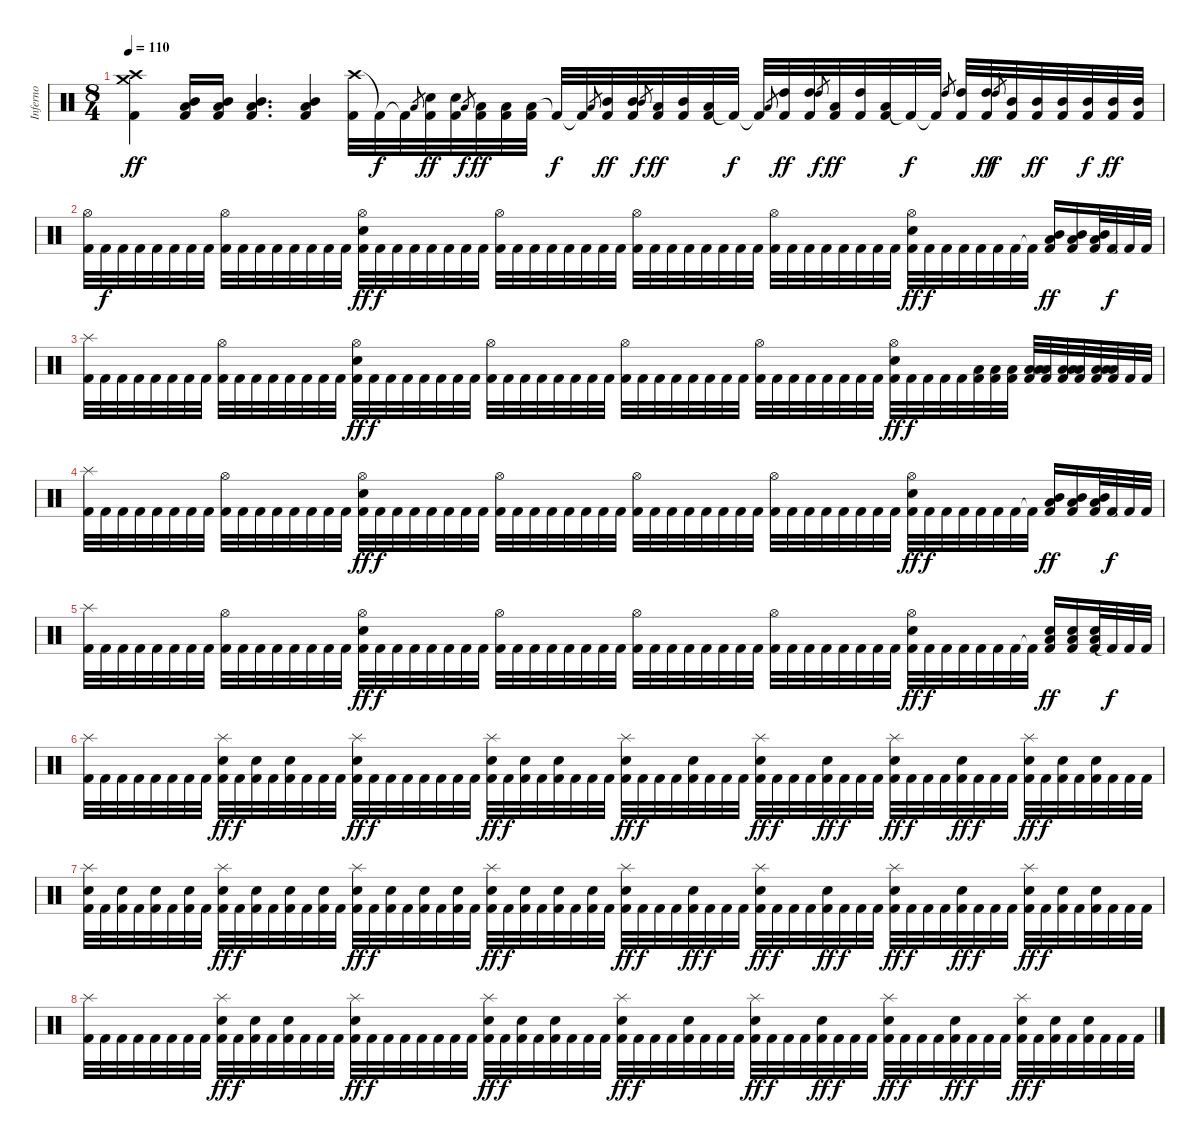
\track ("Inferno" "Inferno") {instrument percussion}
\staff {score}
\articulation defaults
\ts (8 4)
\tempo 110
\clef neutral
\ks c
("Crash high (hit)" "Crash medium (hit)" "Kick (hit) 2").4{dy ff} ("Low Floor Tom (hit)" "Mid Tom (hit)" "Kick (hit) 2").16 ("Low Floor Tom (hit)" "Mid Tom (hit)" "Kick (hit) 2").16 ("Low Floor Tom (hit)" "Mid Tom (hit)" "Kick (hit) 2").4{d} ("Low Floor Tom (hit)" "Mid Tom (hit)" "Kick (hit) 2").4 ("Crash high (hit)" "Kick (hit) 2").32 "Kick (hit) 2"{t}.32{dy f} "Kick (hit) 2"{t}.32 "Low Floor Tom (hit)".8{gr} ("Snare (hit) 2" "Kick (hit) 2").32{dy ff} ("Snare (hit) 2" "Kick (hit) 2").32 "Low Tom (hit)".8{gr dy f} ("Low Floor Tom (hit)" "Kick (hit) 2").32{dy ff} ("Low Tom (hit)" "Kick (hit) 2").32 ("Low Floor Tom (hit)" "Kick (hit) 2").32 "Kick (hit) 2"{t}.32{dy f} "Kick (hit) 2"{t}.32 "Low Floor Tom (hit)".8{gr} ("Mid Tom (hit)" "Kick (hit) 2").32{dy ff} ("Mid Tom (hit)" "Kick (hit) 2").32 "Mid Tom (hit)".8{gr dy f} ("Low Floor Tom (hit)" "Kick (hit) 2").32{dy ff} ("Mid Tom (hit)" "Kick (hit) 2").32 ("Low Floor Tom (hit)" "Kick (hit) 2").32 "Kick (hit) 2"{t}.32{dy f} "Kick (hit) 2"{t}.32 "Low Floor Tom (hit)".8{gr} ("High Tom (hit)" "Kick (hit) 2").32{dy ff} ("High Tom (hit)" "Kick (hit) 2").32 "High Tom (hit)".8{gr dy f} ("Low Floor Tom (hit)" "Kick (hit) 2").32{dy ff} ("High Tom (hit)" "Kick (hit) 2").32 ("Low Floor Tom (hit)" "Kick (hit) 2").32 "Kick (hit) 2"{t}.32{dy f} "Kick (hit) 2"{t}.32 "High Tom (hit)".8{gr} ("High Tom (hit)" "Kick (hit) 2").32 ("High Tom (hit)" "Kick (hit) 2").32{dy ff} "High Tom (hit)".8{gr dy f} ("Mid Tom (hit)" "Kick (hit) 2").32 ("Mid Tom (hit)" "Kick (hit) 2").32{dy ff} ("Mid Tom (hit)" "Kick (hit) 2").32 ("Mid Tom (hit)" "Kick (hit) 2").32{dy f} ("Mid Tom (hit)" "Kick (hit) 2").32{dy ff} ("Mid Tom (hit)" "Kick (hit) 2").32 |
("Hi-Hat (open)" "Kick (hit) 2").32 "Kick (hit) 2".32{dy f} "Kick (hit) 2".32 "Kick (hit) 2".32 "Kick (hit) 2".32 "Kick (hit) 2".32 "Kick (hit) 2".32 "Kick (hit) 2".32 ("Hi-Hat (open)" "Kick (hit) 2").32 "Kick (hit) 2".32 "Kick (hit) 2".32 "Kick (hit) 2".32 "Kick (hit) 2".32 "Kick (hit) 2".32 "Kick (hit) 2".32 "Kick (hit) 2".32 ("Snare (hit) 2" "Hi-Hat (open)" "Kick (hit) 2").32{dy ff} "Kick (hit) 2".32{dy f} "Kick (hit) 2".32 "Kick (hit) 2".32 "Kick (hit) 2".32 "Kick (hit) 2".32 "Kick (hit) 2".32 "Kick (hit) 2".32 ("Hi-Hat (open)" "Kick (hit) 2").32 "Kick (hit) 2".32 "Kick (hit) 2".32 "Kick (hit) 2".32 "Kick (hit) 2".32 "Kick (hit) 2".32 "Kick (hit) 2".32 "Kick (hit) 2".32 ("Hi-Hat (open)" "Kick (hit) 2").32 "Kick (hit) 2".32 "Kick (hit) 2".32 "Kick (hit) 2".32 "Kick (hit) 2".32 "Kick (hit) 2".32 "Kick (hit) 2".32 "Kick (hit) 2".32 ("Hi-Hat (open)" "Kick (hit) 2").32 "Kick (hit) 2".32 "Kick (hit) 2".32 "Kick (hit) 2".32 "Kick (hit) 2".32 "Kick (hit) 2".32 "Kick (hit) 2".32 "Kick (hit) 2".32 ("Snare (hit) 2" "Hi-Hat (open)" "Kick (hit) 2").32{dy ff} "Kick (hit) 2".32{dy f} "Kick (hit) 2".32 "Kick (hit) 2".32 "Kick (hit) 2".32 "Kick (hit) 2".32 "Kick (hit) 2".32 "Kick (hit) 2"{t}.32 ("Low Floor Tom (hit)" "Mid Tom (hit)" "Kick (hit) 2").16{dy ff} ("Low Floor Tom (hit)" "Mid Tom (hit)" "Kick (hit) 2").16 ("Low Floor Tom (hit)" "Mid Tom (hit)" "Kick (hit) 2").32 "Kick (hit) 2"{t}.32{dy f} "Kick (hit) 2".32 "Kick (hit) 2".32 |
("Splash (hit)" "Kick (hit) 2").32 "Kick (hit) 2".32 "Kick (hit) 2".32 "Kick (hit) 2".32 "Kick (hit) 2".32 "Kick (hit) 2".32 "Kick (hit) 2".32 "Kick (hit) 2".32 ("Hi-Hat (open)" "Kick (hit) 2").32 "Kick (hit) 2".32 "Kick (hit) 2".32 "Kick (hit) 2".32 "Kick (hit) 2".32 "Kick (hit) 2".32 "Kick (hit) 2".32 "Kick (hit) 2".32 ("Snare (hit) 2" "Hi-Hat (open)" "Kick (hit) 2").32{dy ff} "Kick (hit) 2".32{dy f} "Kick (hit) 2".32 "Kick (hit) 2".32 "Kick (hit) 2".32 "Kick (hit) 2".32 "Kick (hit) 2".32 "Kick (hit) 2".32 ("Hi-Hat (open)" "Kick (hit) 2").32 "Kick (hit) 2".32 "Kick (hit) 2".32 "Kick (hit) 2".32 "Kick (hit) 2".32 "Kick (hit) 2".32 "Kick (hit) 2".32 "Kick (hit) 2".32 ("Hi-Hat (open)" "Kick (hit) 2").32 "Kick (hit) 2".32 "Kick (hit) 2".32 "Kick (hit) 2".32 "Kick (hit) 2".32 "Kick (hit) 2".32 "Kick (hit) 2".32 "Kick (hit) 2".32 ("Hi-Hat (open)" "Kick (hit) 2").32 "Kick (hit) 2".32 "Kick (hit) 2".32 "Kick (hit) 2".32 "Kick (hit) 2".32 "Kick (hit) 2".32 "Kick (hit) 2".32 "Kick (hit) 2".32 ("Snare (hit) 2" "Hi-Hat (open)" "Kick (hit) 2").32{dy ff} "Kick (hit) 2".32{dy f} "Kick (hit) 2".32 "Kick (hit) 2".32 "Kick (hit) 2".32 ("Low Tom (hit)" "Kick (hit) 2").32 ("Low Tom (hit)" "Kick (hit) 2").32 ("Low Tom (hit)" "Kick (hit) 2").32 ("Low Floor Tom (hit)" "Low Tom (hit)" "Kick (hit) 2").32 ("Low Tom (hit)" "Kick (hit) 2").32 ("Low Floor Tom (hit)" "Low Tom (hit)" "Kick (hit) 2").32 ("Low Tom (hit)" "Kick (hit) 2").32 ("Low Floor Tom (hit)" "Low Tom (hit)" "Kick (hit) 2").32 ("Low Tom (hit)" "Kick (hit) 2").32 "Kick (hit) 2".32 "Kick (hit) 2".32 |
("Splash (hit)" "Kick (hit) 2").32 "Kick (hit) 2".32 "Kick (hit) 2".32 "Kick (hit) 2".32 "Kick (hit) 2".32 "Kick (hit) 2".32 "Kick (hit) 2".32 "Kick (hit) 2".32 ("Hi-Hat (open)" "Kick (hit) 2").32 "Kick (hit) 2".32 "Kick (hit) 2".32 "Kick (hit) 2".32 "Kick (hit) 2".32 "Kick (hit) 2".32 "Kick (hit) 2".32 "Kick (hit) 2".32 ("Snare (hit) 2" "Hi-Hat (open)" "Kick (hit) 2").32{dy ff} "Kick (hit) 2".32{dy f} "Kick (hit) 2".32 "Kick (hit) 2".32 "Kick (hit) 2".32 "Kick (hit) 2".32 "Kick (hit) 2".32 "Kick (hit) 2".32 ("Hi-Hat (open)" "Kick (hit) 2").32 "Kick (hit) 2".32 "Kick (hit) 2".32 "Kick (hit) 2".32 "Kick (hit) 2".32 "Kick (hit) 2".32 "Kick (hit) 2".32 "Kick (hit) 2".32 ("Hi-Hat (open)" "Kick (hit) 2").32 "Kick (hit) 2".32 "Kick (hit) 2".32 "Kick (hit) 2".32 "Kick (hit) 2".32 "Kick (hit) 2".32 "Kick (hit) 2".32 "Kick (hit) 2".32 ("Hi-Hat (open)" "Kick (hit) 2").32 "Kick (hit) 2".32 "Kick (hit) 2".32 "Kick (hit) 2".32 "Kick (hit) 2".32 "Kick (hit) 2".32 "Kick (hit) 2".32 "Kick (hit) 2".32 ("Snare (hit) 2" "Hi-Hat (open)" "Kick (hit) 2").32{dy ff} "Kick (hit) 2".32{dy f} "Kick (hit) 2".32 "Kick (hit) 2".32 "Kick (hit) 2".32 "Kick (hit) 2".32 "Kick (hit) 2".32 "Kick (hit) 2"{t}.32 ("Low Floor Tom (hit)" "Mid Tom (hit)" "Kick (hit) 2").16{dy ff} ("Low Floor Tom (hit)" "Mid Tom (hit)" "Kick (hit) 2").16 ("Low Floor Tom (hit)" "Mid Tom (hit)" "Kick (hit) 2").32 "Kick (hit) 2"{t}.32{dy f} "Kick (hit) 2".32 "Kick (hit) 2".32 |
("Splash (hit)" "Kick (hit) 2").32 "Kick (hit) 2".32 "Kick (hit) 2".32 "Kick (hit) 2".32 "Kick (hit) 2".32 "Kick (hit) 2".32 "Kick (hit) 2".32 "Kick (hit) 2".32 ("Hi-Hat (open)" "Kick (hit) 2").32 "Kick (hit) 2".32 "Kick (hit) 2".32 "Kick (hit) 2".32 "Kick (hit) 2".32 "Kick (hit) 2".32 "Kick (hit) 2".32 "Kick (hit) 2".32 ("Snare (hit) 2" "Hi-Hat (open)" "Kick (hit) 2").32{dy ff} "Kick (hit) 2".32{dy f} "Kick (hit) 2".32 "Kick (hit) 2".32 "Kick (hit) 2".32 "Kick (hit) 2".32 "Kick (hit) 2".32 "Kick (hit) 2".32 ("Hi-Hat (open)" "Kick (hit) 2").32 "Kick (hit) 2".32 "Kick (hit) 2".32 "Kick (hit) 2".32 "Kick (hit) 2".32 "Kick (hit) 2".32 "Kick (hit) 2".32 "Kick (hit) 2".32 ("Hi-Hat (open)" "Kick (hit) 2").32 "Kick (hit) 2".32 "Kick (hit) 2".32 "Kick (hit) 2".32 "Kick (hit) 2".32 "Kick (hit) 2".32 "Kick (hit) 2".32 "Kick (hit) 2".32 ("Hi-Hat (open)" "Kick (hit) 2").32 "Kick (hit) 2".32 "Kick (hit) 2".32 "Kick (hit) 2".32 "Kick (hit) 2".32 "Kick (hit) 2".32 "Kick (hit) 2".32 "Kick (hit) 2".32 ("Snare (hit) 2" "Hi-Hat (open)" "Kick (hit) 2").32{dy ff} "Kick (hit) 2".32{dy f} "Kick (hit) 2".32 "Kick (hit) 2".32 "Kick (hit) 2".32 "Kick (hit) 2".32 "Kick (hit) 2".32 "Kick (hit) 2"{t}.32 ("Low Floor Tom (hit)" "Snare (hit) 2" "Kick (hit) 2").16{dy ff} ("Low Floor Tom (hit)" "Snare (hit) 2" "Kick (hit) 2").16 ("Low Floor Tom (hit)" "Snare (hit) 2" "Kick (hit) 2").32 "Kick (hit) 2"{t}.32{dy f} "Kick (hit) 2".32 "Kick (hit) 2".32 |
("Splash (hit)" "Kick (hit) 2").32 "Kick (hit) 2".32 "Kick (hit) 2".32 "Kick (hit) 2".32 "Kick (hit) 2".32 "Kick (hit) 2".32 "Kick (hit) 2".32 "Kick (hit) 2".32 ("Splash (hit)" "Snare (hit) 2" "Kick (hit) 2").32{dy ff} "Kick (hit) 2".32{dy f} ("Snare (hit) 2" "Kick (hit) 2").32 "Kick (hit) 2".32 ("Snare (hit) 2" "Kick (hit) 2").32 "Kick (hit) 2".32 "Kick (hit) 2".32 "Kick (hit) 2".32 ("Splash (hit)" "Snare (hit) 2" "Kick (hit) 2").32{dy ff} "Kick (hit) 2".32{dy f} "Kick (hit) 2".32 "Kick (hit) 2".32 "Kick (hit) 2".32 "Kick (hit) 2".32 "Kick (hit) 2".32 "Kick (hit) 2".32 ("Splash (hit)" "Snare (hit) 2" "Kick (hit) 2").32{dy ff} "Kick (hit) 2".32{dy f} ("Snare (hit) 2" "Kick (hit) 2").32 "Kick (hit) 2".32 ("Snare (hit) 2" "Kick (hit) 2").32 "Kick (hit) 2".32 "Kick (hit) 2".32 "Kick (hit) 2".32 ("Splash (hit)" "Snare (hit) 2" "Kick (hit) 2").32{dy ff} "Kick (hit) 2".32{dy f} "Kick (hit) 2".32 "Kick (hit) 2".32 ("Snare (hit) 2" "Kick (hit) 2").32 "Kick (hit) 2".32 "Kick (hit) 2".32 "Kick (hit) 2".32 ("Splash (hit)" "Snare (hit) 2" "Kick (hit) 2").32{dy ff} "Kick (hit) 2".32{dy f} "Kick (hit) 2".32 "Kick (hit) 2".32 ("Snare (hit) 2" "Kick (hit) 2").32{dy ff} "Kick (hit) 2".32{dy f} "Kick (hit) 2".32 "Kick (hit) 2".32 ("Splash (hit)" "Snare (hit) 2" "Kick (hit) 2").32{dy ff} "Kick (hit) 2".32{dy f} "Kick (hit) 2".32 "Kick (hit) 2".32 ("Snare (hit) 2" "Kick (hit) 2").32{dy ff} "Kick (hit) 2".32{dy f} "Kick (hit) 2".32 "Kick (hit) 2".32 ("Splash (hit)" "Snare (hit) 2" "Kick (hit) 2").32{dy ff} "Kick (hit) 2".32{dy f} ("Snare (hit) 2" "Kick (hit) 2").32 "Kick (hit) 2".32 ("Snare (hit) 2" "Kick (hit) 2").32 "Kick (hit) 2".32 "Kick (hit) 2".32 "Kick (hit) 2".32 |
("Splash (hit)" "Snare (hit) 2" "Kick (hit) 2").32 "Kick (hit) 2".32 ("Snare (hit) 2" "Kick (hit) 2").32 "Kick (hit) 2".32 ("Snare (hit) 2" "Kick (hit) 2").32 "Kick (hit) 2".32 ("Snare (hit) 2" "Kick (hit) 2").32 "Kick (hit) 2".32 ("Splash (hit)" "Snare (hit) 2" "Kick (hit) 2").32{dy ff} "Kick (hit) 2".32{dy f} ("Snare (hit) 2" "Kick (hit) 2").32 "Kick (hit) 2".32 ("Snare (hit) 2" "Kick (hit) 2").32 "Kick (hit) 2".32 ("Snare (hit) 2" "Kick (hit) 2").32 "Kick (hit) 2".32 ("Splash (hit)" "Snare (hit) 2" "Kick (hit) 2").32{dy ff} "Kick (hit) 2".32{dy f} ("Snare (hit) 2" "Kick (hit) 2").32 "Kick (hit) 2".32 ("Snare (hit) 2" "Kick (hit) 2").32 "Kick (hit) 2".32 ("Snare (hit) 2" "Kick (hit) 2").32 "Kick (hit) 2".32 ("Splash (hit)" "Snare (hit) 2" "Kick (hit) 2").32{dy ff} "Kick (hit) 2".32{dy f} ("Snare (hit) 2" "Kick (hit) 2").32 "Kick (hit) 2".32 ("Snare (hit) 2" "Kick (hit) 2").32 "Kick (hit) 2".32 ("Snare (hit) 2" "Kick (hit) 2").32 "Kick (hit) 2".32 ("Splash (hit)" "Snare (hit) 2" "Kick (hit) 2").32{dy ff} "Kick (hit) 2".32{dy f} "Kick (hit) 2".32 "Kick (hit) 2".32 ("Snare (hit) 2" "Kick (hit) 2").32{dy ff} "Kick (hit) 2".32{dy f} "Kick (hit) 2".32 "Kick (hit) 2".32 ("Splash (hit)" "Snare (hit) 2" "Kick (hit) 2").32{dy ff} "Kick (hit) 2".32{dy f} "Kick (hit) 2".32 "Kick (hit) 2".32 ("Snare (hit) 2" "Kick (hit) 2").32{dy ff} "Kick (hit) 2".32{dy f} "Kick (hit) 2".32 "Kick (hit) 2".32 ("Splash (hit)" "Snare (hit) 2" "Kick (hit) 2").32{dy ff} "Kick (hit) 2".32{dy f} "Kick (hit) 2".32 "Kick (hit) 2".32 ("Snare (hit) 2" "Kick (hit) 2").32{dy ff} "Kick (hit) 2".32{dy f} "Kick (hit) 2".32 "Kick (hit) 2".32 ("Splash (hit)" "Snare (hit) 2" "Kick (hit) 2").32{dy ff} "Kick (hit) 2".32{dy f} ("Snare (hit) 2" "Kick (hit) 2").32 "Kick (hit) 2".32 ("Snare (hit) 2" "Kick (hit) 2").32 "Kick (hit) 2".32 "Kick (hit) 2".32 "Kick (hit) 2".32 |
("Splash (hit)" "Kick (hit) 2").32 "Kick (hit) 2".32 "Kick (hit) 2".32 "Kick (hit) 2".32 "Kick (hit) 2".32 "Kick (hit) 2".32 "Kick (hit) 2".32 "Kick (hit) 2".32 ("Splash (hit)" "Snare (hit) 2" "Kick (hit) 2").32{dy ff} "Kick (hit) 2".32{dy f} ("Snare (hit) 2" "Kick (hit) 2").32 "Kick (hit) 2".32 ("Snare (hit) 2" "Kick (hit) 2").32 "Kick (hit) 2".32 "Kick (hit) 2".32 "Kick (hit) 2".32 ("Splash (hit)" "Snare (hit) 2" "Kick (hit) 2").32{dy ff} "Kick (hit) 2".32{dy f} "Kick (hit) 2".32 "Kick (hit) 2".32 "Kick (hit) 2".32 "Kick (hit) 2".32 "Kick (hit) 2".32 "Kick (hit) 2".32 ("Splash (hit)" "Snare (hit) 2" "Kick (hit) 2").32{dy ff} "Kick (hit) 2".32{dy f} ("Snare (hit) 2" "Kick (hit) 2").32 "Kick (hit) 2".32 ("Snare (hit) 2" "Kick (hit) 2").32 "Kick (hit) 2".32 "Kick (hit) 2".32 "Kick (hit) 2".32 ("Splash (hit)" "Snare (hit) 2" "Kick (hit) 2").32{dy ff} "Kick (hit) 2".32{dy f} "Kick (hit) 2".32 "Kick (hit) 2".32 ("Snare (hit) 2" "Kick (hit) 2").32 "Kick (hit) 2".32 "Kick (hit) 2".32 "Kick (hit) 2".32 ("Splash (hit)" "Snare (hit) 2" "Kick (hit) 2").32{dy ff} "Kick (hit) 2".32{dy f} "Kick (hit) 2".32 "Kick (hit) 2".32 ("Snare (hit) 2" "Kick (hit) 2").32{dy ff} "Kick (hit) 2".32{dy f} "Kick (hit) 2".32 "Kick (hit) 2".32 ("Splash (hit)" "Snare (hit) 2" "Kick (hit) 2").32{dy ff} "Kick (hit) 2".32{dy f} "Kick (hit) 2".32 "Kick (hit) 2".32 ("Snare (hit) 2" "Kick (hit) 2").32{dy ff} "Kick (hit) 2".32{dy f} "Kick (hit) 2".32 "Kick (hit) 2".32 ("Splash (hit)" "Snare (hit) 2" "Kick (hit) 2").32{dy ff} "Kick (hit) 2".32{dy f} ("Snare (hit) 2" "Kick (hit) 2").32 "Kick (hit) 2".32 ("Snare (hit) 2" "Kick (hit) 2").32 "Kick (hit) 2".32 "Kick (hit) 2".32 "Kick (hit) 2".32
